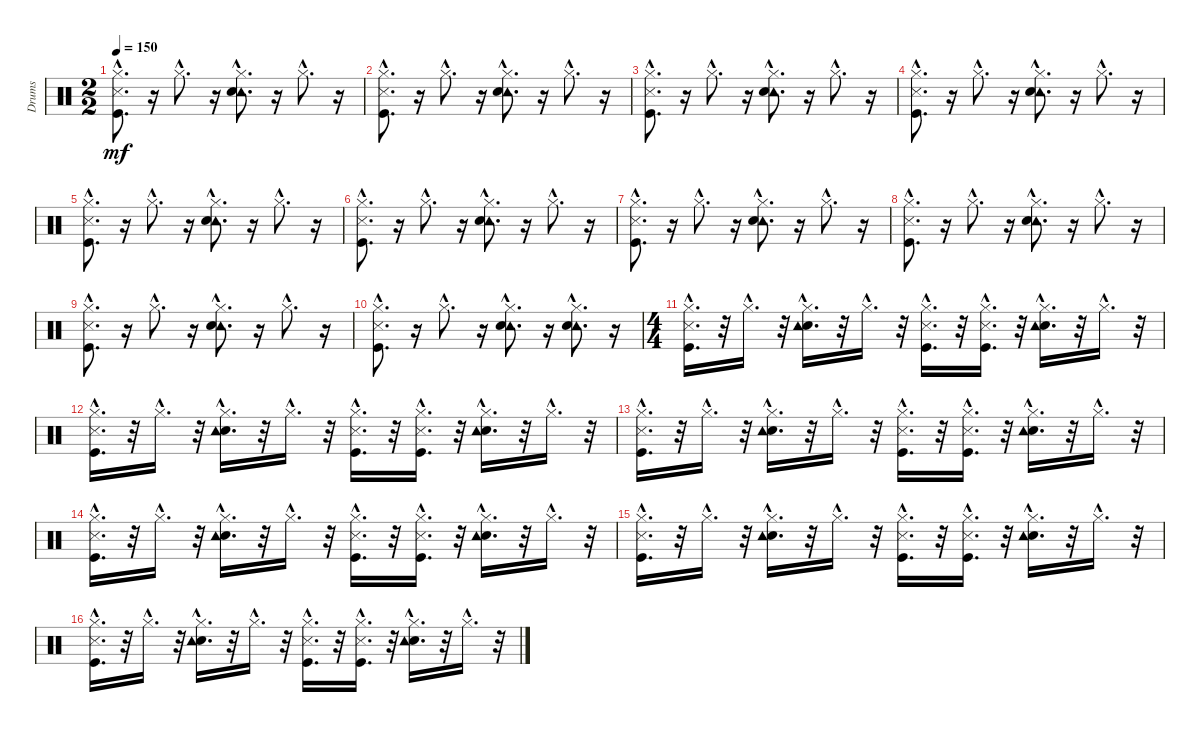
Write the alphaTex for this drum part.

\track ("Drums" "Drums") {instrument percussion}
\staff {score}
\articulation defaults
\ts (2 2)
\tempo 150
\clef neutral
\ks c
("Hi-Hat (closed)"{hac} "Kick (hit)"{hac} "Metronome (hit)"{hac}).8{d dy mf} r.16 "Hi-Hat (closed)"{hac}.8{d} r.16 ("Hi-Hat (closed)"{hac} "Tambourine (hit)"{hac} "Electric Snare (hit)"{hac}).8{d} r.16 "Hi-Hat (closed)"{hac}.8{d} r.16 |
("Hi-Hat (closed)"{hac} "Kick (hit)"{hac} "Metronome (hit)"{hac}).8{d} r.16 "Hi-Hat (closed)"{hac}.8{d} r.16 ("Hi-Hat (closed)"{hac} "Tambourine (hit)"{hac} "Electric Snare (hit)"{hac}).8{d} r.16 "Hi-Hat (closed)"{hac}.8{d} r.16 |
("Hi-Hat (closed)"{hac} "Kick (hit)"{hac} "Metronome (hit)"{hac}).8{d} r.16 "Hi-Hat (closed)"{hac}.8{d} r.16 ("Hi-Hat (closed)"{hac} "Tambourine (hit)"{hac} "Electric Snare (hit)"{hac}).8{d} r.16 "Hi-Hat (closed)"{hac}.8{d} r.16 |
("Hi-Hat (closed)"{hac} "Kick (hit)"{hac} "Metronome (hit)"{hac}).8{d} r.16 "Hi-Hat (closed)"{hac}.8{d} r.16 ("Hi-Hat (closed)"{hac} "Tambourine (hit)"{hac} "Electric Snare (hit)"{hac}).8{d} r.16 "Hi-Hat (closed)"{hac}.8{d} r.16 |
("Hi-Hat (closed)"{hac} "Kick (hit)"{hac} "Metronome (hit)"{hac}).8{d} r.16 "Hi-Hat (closed)"{hac}.8{d} r.16 ("Hi-Hat (closed)"{hac} "Tambourine (hit)"{hac} "Electric Snare (hit)"{hac}).8{d} r.16 "Hi-Hat (closed)"{hac}.8{d} r.16 |
("Hi-Hat (closed)"{hac} "Kick (hit)"{hac} "Metronome (hit)"{hac}).8{d} r.16 "Hi-Hat (closed)"{hac}.8{d} r.16 ("Hi-Hat (closed)"{hac} "Tambourine (hit)"{hac} "Electric Snare (hit)"{hac}).8{d} r.16 "Hi-Hat (closed)"{hac}.8{d} r.16 |
("Hi-Hat (closed)"{hac} "Kick (hit)"{hac} "Metronome (hit)"{hac}).8{d} r.16 "Hi-Hat (closed)"{hac}.8{d} r.16 ("Hi-Hat (closed)"{hac} "Tambourine (hit)"{hac} "Electric Snare (hit)"{hac}).8{d} r.16 "Hi-Hat (closed)"{hac}.8{d} r.16 |
("Hi-Hat (closed)"{hac} "Kick (hit)"{hac} "Metronome (hit)"{hac}).8{d} r.16 "Hi-Hat (closed)"{hac}.8{d} r.16 ("Hi-Hat (closed)"{hac} "Tambourine (hit)"{hac} "Electric Snare (hit)"{hac}).8{d} r.16 "Hi-Hat (closed)"{hac}.8{d} r.16 |
("Hi-Hat (closed)"{hac} "Kick (hit)"{hac} "Metronome (hit)"{hac}).8{d} r.16 "Hi-Hat (closed)"{hac}.8{d} r.16 ("Hi-Hat (closed)"{hac} "Tambourine (hit)"{hac} "Electric Snare (hit)"{hac}).8{d} r.16 "Hi-Hat (closed)"{hac}.8{d} r.16 |
("Hi-Hat (closed)"{hac} "Kick (hit)"{hac} "Metronome (hit)"{hac}).8{d} r.16 "Hi-Hat (closed)"{hac}.8{d} r.16 ("Hi-Hat (closed)"{hac} "Tambourine (hit)"{hac} "Electric Snare (hit)"{hac}).8{d} r.16 ("Tambourine (hit)"{hac} "Electric Snare (hit)"{hac} "Hi-Hat (closed)"{hac}).8{d} r.16 |
\ts (4 4)
("Hi-Hat (closed)"{hac} "Kick (hit)"{hac} "Metronome (hit)"{hac}).16{d} r.32 "Hi-Hat (closed)"{hac}.16{d} r.32 ("Hi-Hat (closed)"{hac} "Electric Snare (hit)"{hac} "Tambourine (hit)"{hac}).16{d} r.32 "Hi-Hat (closed)"{hac}.16{d} r.32 ("Hi-Hat (closed)"{hac} "Kick (hit)"{hac} "Metronome (hit)"{hac}).16{d} r.32 ("Kick (hit)"{hac} "Metronome (hit)"{hac} "Hi-Hat (closed)"{hac}).16{d} r.32 ("Hi-Hat (closed)"{hac} "Electric Snare (hit)"{hac} "Tambourine (hit)"{hac}).16{d} r.32 "Hi-Hat (closed)"{hac}.16{d} r.32 |
("Hi-Hat (closed)"{hac} "Kick (hit)"{hac} "Metronome (hit)"{hac}).16{d} r.32 "Hi-Hat (closed)"{hac}.16{d} r.32 ("Hi-Hat (closed)"{hac} "Electric Snare (hit)"{hac} "Tambourine (hit)"{hac}).16{d} r.32 "Hi-Hat (closed)"{hac}.16{d} r.32 ("Hi-Hat (closed)"{hac} "Kick (hit)"{hac} "Metronome (hit)"{hac}).16{d} r.32 ("Kick (hit)"{hac} "Metronome (hit)"{hac} "Hi-Hat (closed)"{hac}).16{d} r.32 ("Hi-Hat (closed)"{hac} "Electric Snare (hit)"{hac} "Tambourine (hit)"{hac}).16{d} r.32 "Hi-Hat (closed)"{hac}.16{d} r.32 |
("Hi-Hat (closed)"{hac} "Kick (hit)"{hac} "Metronome (hit)"{hac}).16{d} r.32 "Hi-Hat (closed)"{hac}.16{d} r.32 ("Hi-Hat (closed)"{hac} "Electric Snare (hit)"{hac} "Tambourine (hit)"{hac}).16{d} r.32 "Hi-Hat (closed)"{hac}.16{d} r.32 ("Hi-Hat (closed)"{hac} "Kick (hit)"{hac} "Metronome (hit)"{hac}).16{d} r.32 ("Kick (hit)"{hac} "Metronome (hit)"{hac} "Hi-Hat (closed)"{hac}).16{d} r.32 ("Hi-Hat (closed)"{hac} "Electric Snare (hit)"{hac} "Tambourine (hit)"{hac}).16{d} r.32 "Hi-Hat (closed)"{hac}.16{d} r.32 |
("Hi-Hat (closed)"{hac} "Kick (hit)"{hac} "Metronome (hit)"{hac}).16{d} r.32 "Hi-Hat (closed)"{hac}.16{d} r.32 ("Hi-Hat (closed)"{hac} "Electric Snare (hit)"{hac} "Tambourine (hit)"{hac}).16{d} r.32 "Hi-Hat (closed)"{hac}.16{d} r.32 ("Hi-Hat (closed)"{hac} "Kick (hit)"{hac} "Metronome (hit)"{hac}).16{d} r.32 ("Kick (hit)"{hac} "Metronome (hit)"{hac} "Hi-Hat (closed)"{hac}).16{d} r.32 ("Hi-Hat (closed)"{hac} "Electric Snare (hit)"{hac} "Tambourine (hit)"{hac}).16{d} r.32 "Hi-Hat (closed)"{hac}.16{d} r.32 |
("Hi-Hat (closed)"{hac} "Kick (hit)"{hac} "Metronome (hit)"{hac}).16{d} r.32 "Hi-Hat (closed)"{hac}.16{d} r.32 ("Hi-Hat (closed)"{hac} "Electric Snare (hit)"{hac} "Tambourine (hit)"{hac}).16{d} r.32 "Hi-Hat (closed)"{hac}.16{d} r.32 ("Hi-Hat (closed)"{hac} "Kick (hit)"{hac} "Metronome (hit)"{hac}).16{d} r.32 ("Kick (hit)"{hac} "Metronome (hit)"{hac} "Hi-Hat (closed)"{hac}).16{d} r.32 ("Hi-Hat (closed)"{hac} "Electric Snare (hit)"{hac} "Tambourine (hit)"{hac}).16{d} r.32 "Hi-Hat (closed)"{hac}.16{d} r.32 |
("Hi-Hat (closed)"{hac} "Kick (hit)"{hac} "Metronome (hit)"{hac}).16{d} r.32 "Hi-Hat (closed)"{hac}.16{d} r.32 ("Hi-Hat (closed)"{hac} "Electric Snare (hit)"{hac} "Tambourine (hit)"{hac}).16{d} r.32 "Hi-Hat (closed)"{hac}.16{d} r.32 ("Hi-Hat (closed)"{hac} "Kick (hit)"{hac} "Metronome (hit)"{hac}).16{d} r.32 ("Kick (hit)"{hac} "Metronome (hit)"{hac} "Hi-Hat (closed)"{hac}).16{d} r.32 ("Hi-Hat (closed)"{hac} "Electric Snare (hit)"{hac} "Tambourine (hit)"{hac}).16{d} r.32 "Hi-Hat (closed)"{hac}.16{d} r.32
